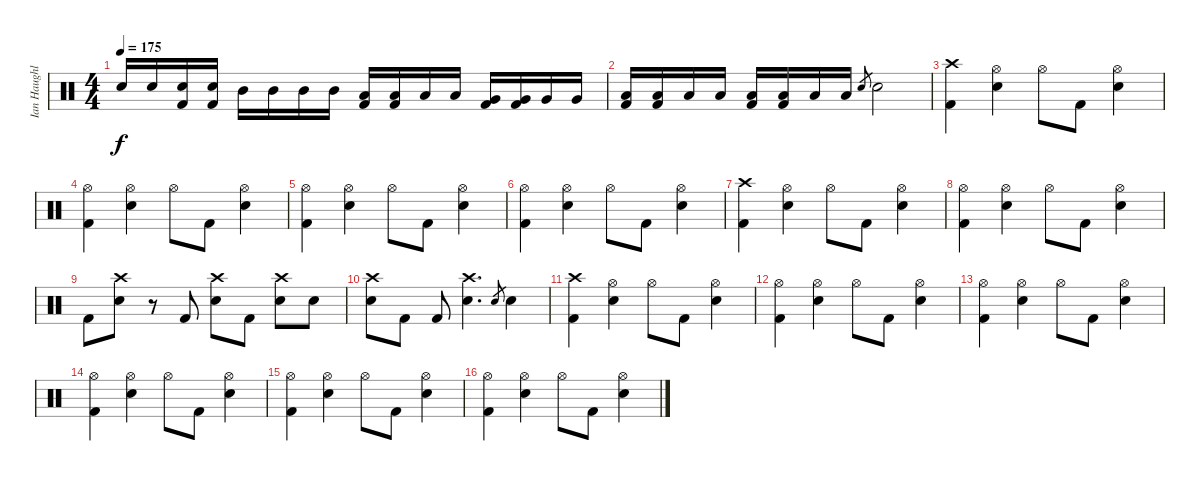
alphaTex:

\track ("Ian Haughland" "Ian Haughl") {instrument percussion}
\staff {score}
\articulation defaults
\ts (4 4)
\tempo 175
\clef neutral
\ks c "Snare (hit) 2".16{dy f} "Snare (hit) 2".16
("Kick (hit) 2" "Snare (hit) 2").16 ("Kick (hit) 2" "Snare (hit) 2").16 "Mid Tom (hit)".16 "Mid Tom (hit)".16 "Mid Tom (hit)".16 "Mid Tom (hit)".16 ("Kick (hit) 2" "Low Tom (hit)").16 ("Kick (hit) 2" "Low Tom (hit)").16 "Low Tom (hit)".16 "Low Tom (hit)".16 ("Kick (hit) 2" "Very Low Tom (hit)").16 ("Kick (hit) 2" "Very Low Tom (hit)").16 "Very Low Tom (hit)".16 "Very Low Tom (hit)".16 |
("Kick (hit) 2" "Low Floor Tom (hit)").16 ("Kick (hit) 2" "Low Floor Tom (hit)").16 "Low Floor Tom (hit)".16 "Low Floor Tom (hit)".16 ("Kick (hit) 2" "Low Floor Tom (hit)").16 ("Kick (hit) 2" "Low Floor Tom (hit)").16 "Low Floor Tom (hit)".16 "Low Floor Tom (hit)".16 "Snare (hit) 2".8{gr} "Snare (hit) 2".2 |
("Crash high (hit)" "Kick (hit) 2").4 ("Hi-Hat (open)" "Snare (hit) 2").4 "Hi-Hat (open)".8 "Kick (hit) 2".8 ("Hi-Hat (open)" "Snare (hit) 2").4 |
("Hi-Hat (open)" "Kick (hit) 2").4 ("Hi-Hat (open)" "Snare (hit) 2").4 "Hi-Hat (open)".8 "Kick (hit) 2".8 ("Hi-Hat (open)" "Snare (hit) 2").4 |
("Hi-Hat (open)" "Kick (hit) 2").4 ("Hi-Hat (open)" "Snare (hit) 2").4 "Hi-Hat (open)".8 "Kick (hit) 2".8 ("Hi-Hat (open)" "Snare (hit) 2").4 |
("Hi-Hat (open)" "Kick (hit) 2").4 ("Hi-Hat (open)" "Snare (hit) 2").4 "Hi-Hat (open)".8 "Kick (hit) 2".8 ("Hi-Hat (open)" "Snare (hit) 2").4 |
("Crash high (hit)" "Kick (hit) 2").4 ("Hi-Hat (open)" "Snare (hit) 2").4 "Hi-Hat (open)".8 "Kick (hit) 2".8 ("Hi-Hat (open)" "Snare (hit) 2").4 |
("Hi-Hat (open)" "Kick (hit) 2").4 ("Hi-Hat (open)" "Snare (hit) 2").4 "Hi-Hat (open)".8 "Kick (hit) 2".8 ("Hi-Hat (open)" "Snare (hit) 2").4 |
"Kick (hit) 2".8 ("Crash high (hit)" "Snare (hit) 2").8 r.8 "Kick (hit) 2".8 ("Crash high (hit)" "Snare (hit) 2").8 "Kick (hit) 2".8 ("Crash high (hit)" "Snare (hit) 2").8 "Snare (hit) 2".8 |
("Crash high (hit)" "Snare (hit) 2").8 "Kick (hit) 2".8 "Kick (hit) 2".8 ("Crash high (hit)" "Snare (hit) 2").4{d} "Snare (hit) 2".8{gr} "Snare (hit) 2".4 |
("Crash high (hit)" "Kick (hit) 2").4 ("Hi-Hat (open)" "Snare (hit) 2").4 "Hi-Hat (open)".8 "Kick (hit) 2".8 ("Hi-Hat (open)" "Snare (hit) 2").4 |
("Hi-Hat (open)" "Kick (hit) 2").4 ("Hi-Hat (open)" "Snare (hit) 2").4 "Hi-Hat (open)".8 "Kick (hit) 2".8 ("Hi-Hat (open)" "Snare (hit) 2").4 |
("Hi-Hat (open)" "Kick (hit) 2").4 ("Hi-Hat (open)" "Snare (hit) 2").4 "Hi-Hat (open)".8 "Kick (hit) 2".8 ("Hi-Hat (open)" "Snare (hit) 2").4 |
("Hi-Hat (open)" "Kick (hit) 2").4 ("Hi-Hat (open)" "Snare (hit) 2").4 "Hi-Hat (open)".8 "Kick (hit) 2".8 ("Hi-Hat (open)" "Snare (hit) 2").4 |
("Hi-Hat (open)" "Kick (hit) 2").4 ("Hi-Hat (open)" "Snare (hit) 2").4 "Hi-Hat (open)".8 "Kick (hit) 2".8 ("Hi-Hat (open)" "Snare (hit) 2").4 |
("Hi-Hat (open)" "Kick (hit) 2").4 ("Hi-Hat (open)" "Snare (hit) 2").4 "Hi-Hat (open)".8 "Kick (hit) 2".8 ("Hi-Hat (open)" "Snare (hit) 2").4
